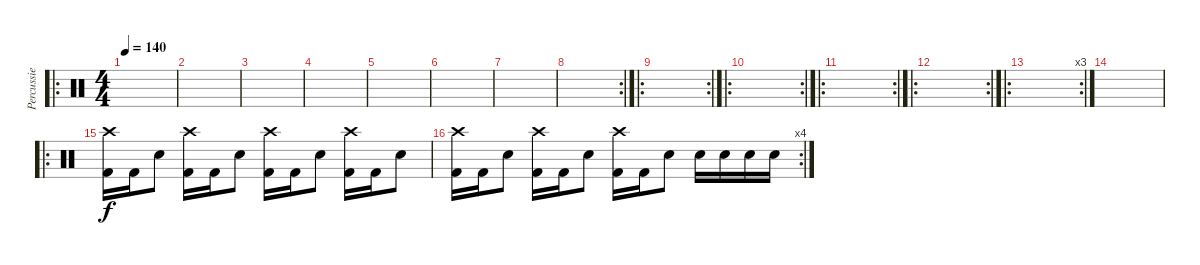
\track ("Percussie" "Percussie") {instrument percussion}
\staff {score}
\articulation defaults
\ro
\ts (4 4)
\tempo 140
\clef neutral
\ks c
|
|
|
|
|
|
|
\rc 2
|
\ro
\rc 2
|
\ro
\rc 2
|
\ro
\rc 2
|
\ro
\rc 2
|
\ro
\rc 3
|
|
\ro
("Crash high (hit)" "Kick (hit) 2").16 "Kick (hit) 2".16 "Snare (hit) 2".8 ("Crash high (hit)" "Kick (hit) 2").16 "Kick (hit) 2".16 "Snare (hit) 2".8 ("Crash high (hit)" "Kick (hit) 2").16 "Kick (hit) 2".16 "Snare (hit) 2".8 ("Crash high (hit)" "Kick (hit) 2").16 "Kick (hit) 2".16 "Snare (hit) 2".8 |
\rc 4
("Crash high (hit)" "Kick (hit) 2").16 "Kick (hit) 2".16 "Snare (hit) 2".8 ("Crash high (hit)" "Kick (hit) 2").16 "Kick (hit) 2".16 "Snare (hit) 2".8 ("Crash high (hit)" "Kick (hit) 2").16 "Kick (hit) 2".16 "Snare (hit) 2".8 "Snare (hit) 2".16 "Snare (hit) 2".16 "Snare (hit) 2".16 "Snare (hit) 2".16
